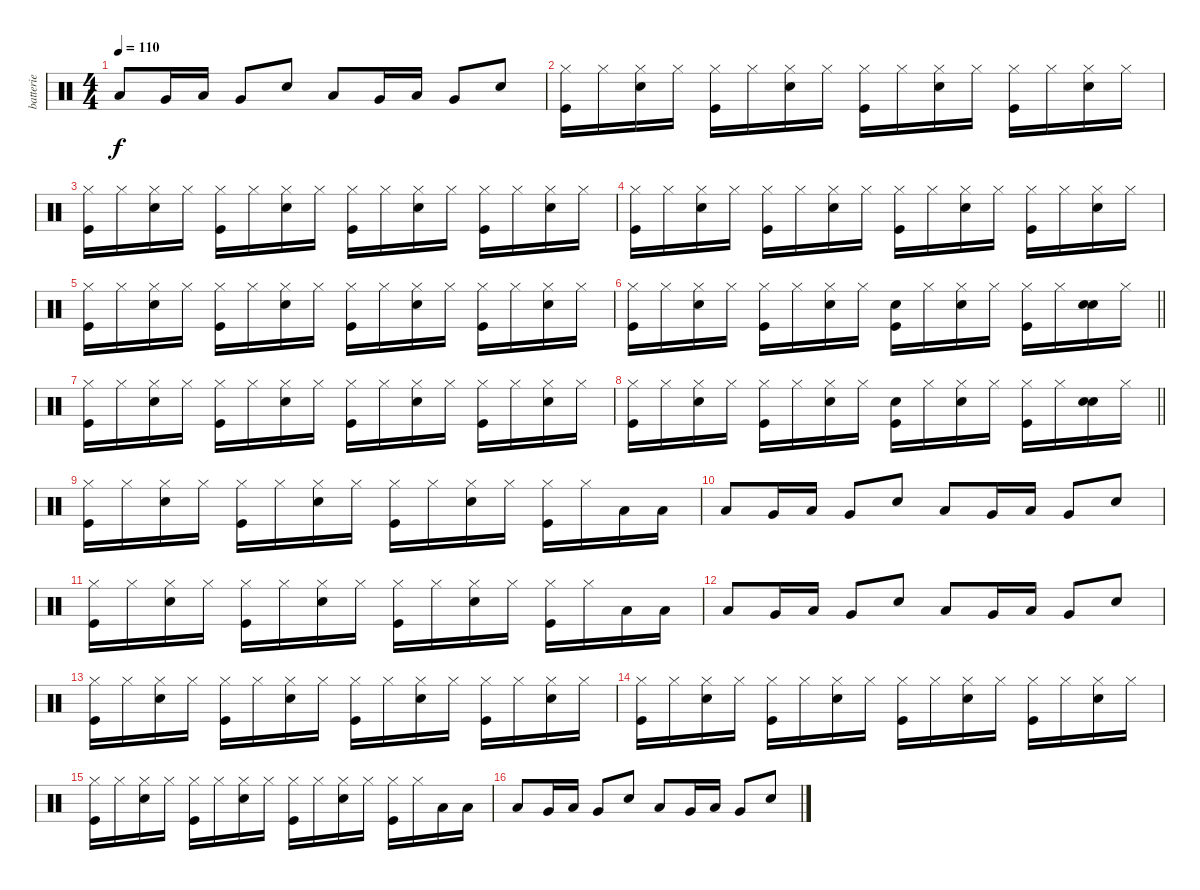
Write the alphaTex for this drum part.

\track ("batterie" "batterie") {instrument percussion}
\staff {score}
\articulation defaults
\ts (4 4)
\tempo 110
\clef neutral
\ks c "Low Tom (hit)".8{dy f} "Very Low Tom (hit)".16 "Low Floor Tom (hit)".16 "Very Low Tom (hit)".8 "Snare (hit) 2".8 "Low Tom (hit)".8 "Very Low Tom (hit)".16 "Low Floor Tom (hit)".16 "Very Low Tom (hit)".8 "Snare (hit) 2".8
|
("Hi-Hat (closed)" "Kick (hit)").16 "Hi-Hat (closed)".16 ("Hi-Hat (closed)" "Snare (hit) 2").16 "Hi-Hat (closed)".16 ("Hi-Hat (closed)" "Kick (hit)").16 "Hi-Hat (closed)".16 ("Hi-Hat (closed)" "Snare (hit) 2").16 "Hi-Hat (closed)".16 ("Hi-Hat (closed)" "Kick (hit)").16 "Hi-Hat (closed)".16 ("Hi-Hat (closed)" "Snare (hit) 2").16 "Hi-Hat (closed)".16 ("Hi-Hat (closed)" "Kick (hit)").16 "Hi-Hat (closed)".16 ("Hi-Hat (closed)" "Snare (hit) 2").16 "Hi-Hat (closed)".16 |
("Hi-Hat (closed)" "Kick (hit)").16 "Hi-Hat (closed)".16 ("Hi-Hat (closed)" "Snare (hit) 2").16 "Hi-Hat (closed)".16 ("Hi-Hat (closed)" "Kick (hit)").16 "Hi-Hat (closed)".16 ("Hi-Hat (closed)" "Snare (hit) 2").16 "Hi-Hat (closed)".16 ("Hi-Hat (closed)" "Kick (hit)").16 "Hi-Hat (closed)".16 ("Hi-Hat (closed)" "Snare (hit) 2").16 "Hi-Hat (closed)".16 ("Hi-Hat (closed)" "Kick (hit)").16 "Hi-Hat (closed)".16 ("Hi-Hat (closed)" "Snare (hit) 2").16 "Hi-Hat (closed)".16 |
("Hi-Hat (closed)" "Kick (hit)").16 "Hi-Hat (closed)".16 ("Hi-Hat (closed)" "Snare (hit) 2").16 "Hi-Hat (closed)".16 ("Hi-Hat (closed)" "Kick (hit)").16 "Hi-Hat (closed)".16 ("Hi-Hat (closed)" "Snare (hit) 2").16 "Hi-Hat (closed)".16 ("Hi-Hat (closed)" "Kick (hit)").16 "Hi-Hat (closed)".16 ("Hi-Hat (closed)" "Snare (hit) 2").16 "Hi-Hat (closed)".16 ("Hi-Hat (closed)" "Kick (hit)").16 "Hi-Hat (closed)".16 ("Hi-Hat (closed)" "Snare (hit) 2").16 "Hi-Hat (closed)".16 |
("Hi-Hat (closed)" "Kick (hit)").16 "Hi-Hat (closed)".16 ("Hi-Hat (closed)" "Snare (hit) 2").16 "Hi-Hat (closed)".16 ("Hi-Hat (closed)" "Kick (hit)").16 "Hi-Hat (closed)".16 ("Hi-Hat (closed)" "Snare (hit) 2").16 "Hi-Hat (closed)".16 ("Hi-Hat (closed)" "Kick (hit)").16 "Hi-Hat (closed)".16 ("Hi-Hat (closed)" "Snare (hit) 2").16 "Hi-Hat (closed)".16 ("Hi-Hat (closed)" "Kick (hit)").16 "Hi-Hat (closed)".16 ("Hi-Hat (closed)" "Snare (hit) 2").16 "Hi-Hat (closed)".16 |
\barLineRight lightlight
("Hi-Hat (closed)" "Kick (hit)").16 "Hi-Hat (closed)".16 ("Hi-Hat (closed)" "Snare (hit) 2").16 "Hi-Hat (closed)".16 ("Hi-Hat (closed)" "Kick (hit)").16 "Hi-Hat (closed)".16 ("Hi-Hat (closed)" "Snare (hit) 2").16 "Hi-Hat (closed)".16 ("Snare (hit)" "Kick (hit)").16 "Hi-Hat (closed)".16 ("Hi-Hat (closed)" "Snare (hit) 2").16 "Hi-Hat (closed)".16 ("Hi-Hat (closed)" "Kick (hit)").16 "Hi-Hat (closed)".16 ("Snare (hit)" "Snare (hit) 2").16 "Hi-Hat (closed)".16 |
("Hi-Hat (closed)" "Kick (hit)").16 "Hi-Hat (closed)".16 ("Hi-Hat (closed)" "Snare (hit) 2").16 "Hi-Hat (closed)".16 ("Hi-Hat (closed)" "Kick (hit)").16 "Hi-Hat (closed)".16 ("Hi-Hat (closed)" "Snare (hit) 2").16 "Hi-Hat (closed)".16 ("Hi-Hat (closed)" "Kick (hit)").16 "Hi-Hat (closed)".16 ("Hi-Hat (closed)" "Snare (hit) 2").16 "Hi-Hat (closed)".16 ("Hi-Hat (closed)" "Kick (hit)").16 "Hi-Hat (closed)".16 ("Hi-Hat (closed)" "Snare (hit) 2").16 "Hi-Hat (closed)".16 |
\barLineRight lightlight
("Hi-Hat (closed)" "Kick (hit)").16 "Hi-Hat (closed)".16 ("Hi-Hat (closed)" "Snare (hit) 2").16 "Hi-Hat (closed)".16 ("Hi-Hat (closed)" "Kick (hit)").16 "Hi-Hat (closed)".16 ("Hi-Hat (closed)" "Snare (hit) 2").16 "Hi-Hat (closed)".16 ("Snare (hit)" "Kick (hit)").16 "Hi-Hat (closed)".16 ("Hi-Hat (closed)" "Snare (hit) 2").16 "Hi-Hat (closed)".16 ("Hi-Hat (closed)" "Kick (hit)").16 "Hi-Hat (closed)".16 ("Snare (hit)" "Snare (hit) 2").16 "Hi-Hat (closed)".16 |
("Hi-Hat (closed)" "Kick (hit)").16 "Hi-Hat (closed)".16 ("Hi-Hat (closed)" "Snare (hit) 2").16 "Hi-Hat (closed)".16 ("Hi-Hat (closed)" "Kick (hit)").16 "Hi-Hat (closed)".16 ("Hi-Hat (closed)" "Snare (hit) 2").16 "Hi-Hat (closed)".16 ("Hi-Hat (closed)" "Kick (hit)").16 "Hi-Hat (closed)".16 ("Hi-Hat (closed)" "Snare (hit) 2").16 "Hi-Hat (closed)".16 ("Hi-Hat (closed)" "Kick (hit)").16 "Hi-Hat (closed)".16 "Low Floor Tom (hit)".16 "Low Floor Tom (hit)".16 |
"Low Tom (hit)".8 "Very Low Tom (hit)".16 "Low Floor Tom (hit)".16 "Very Low Tom (hit)".8 "Snare (hit) 2".8 "Low Tom (hit)".8 "Very Low Tom (hit)".16 "Low Floor Tom (hit)".16 "Very Low Tom (hit)".8 "Snare (hit) 2".8 |
("Hi-Hat (closed)" "Kick (hit)").16 "Hi-Hat (closed)".16 ("Hi-Hat (closed)" "Snare (hit) 2").16 "Hi-Hat (closed)".16 ("Hi-Hat (closed)" "Kick (hit)").16 "Hi-Hat (closed)".16 ("Hi-Hat (closed)" "Snare (hit) 2").16 "Hi-Hat (closed)".16 ("Hi-Hat (closed)" "Kick (hit)").16 "Hi-Hat (closed)".16 ("Hi-Hat (closed)" "Snare (hit) 2").16 "Hi-Hat (closed)".16 ("Hi-Hat (closed)" "Kick (hit)").16 "Hi-Hat (closed)".16 "Low Floor Tom (hit)".16 "Low Floor Tom (hit)".16 |
"Low Tom (hit)".8 "Very Low Tom (hit)".16 "Low Floor Tom (hit)".16 "Very Low Tom (hit)".8 "Snare (hit) 2".8 "Low Tom (hit)".8 "Very Low Tom (hit)".16 "Low Floor Tom (hit)".16 "Very Low Tom (hit)".8 "Snare (hit) 2".8 |
("Hi-Hat (closed)" "Kick (hit)").16 "Hi-Hat (closed)".16 ("Hi-Hat (closed)" "Snare (hit) 2").16 "Hi-Hat (closed)".16 ("Hi-Hat (closed)" "Kick (hit)").16 "Hi-Hat (closed)".16 ("Hi-Hat (closed)" "Snare (hit) 2").16 "Hi-Hat (closed)".16 ("Hi-Hat (closed)" "Kick (hit)").16 "Hi-Hat (closed)".16 ("Hi-Hat (closed)" "Snare (hit) 2").16 "Hi-Hat (closed)".16 ("Hi-Hat (closed)" "Kick (hit)").16 "Hi-Hat (closed)".16 ("Hi-Hat (closed)" "Snare (hit) 2").16 "Hi-Hat (closed)".16 |
("Hi-Hat (closed)" "Kick (hit)").16 "Hi-Hat (closed)".16 ("Hi-Hat (closed)" "Snare (hit) 2").16 "Hi-Hat (closed)".16 ("Hi-Hat (closed)" "Kick (hit)").16 "Hi-Hat (closed)".16 ("Hi-Hat (closed)" "Snare (hit) 2").16 "Hi-Hat (closed)".16 ("Hi-Hat (closed)" "Kick (hit)").16 "Hi-Hat (closed)".16 ("Hi-Hat (closed)" "Snare (hit) 2").16 "Hi-Hat (closed)".16 ("Hi-Hat (closed)" "Kick (hit)").16 "Hi-Hat (closed)".16 ("Hi-Hat (closed)" "Snare (hit) 2").16 "Hi-Hat (closed)".16 |
("Hi-Hat (closed)" "Kick (hit)").16 "Hi-Hat (closed)".16 ("Hi-Hat (closed)" "Snare (hit) 2").16 "Hi-Hat (closed)".16 ("Hi-Hat (closed)" "Kick (hit)").16 "Hi-Hat (closed)".16 ("Hi-Hat (closed)" "Snare (hit) 2").16 "Hi-Hat (closed)".16 ("Hi-Hat (closed)" "Kick (hit)").16 "Hi-Hat (closed)".16 ("Hi-Hat (closed)" "Snare (hit) 2").16 "Hi-Hat (closed)".16 ("Hi-Hat (closed)" "Kick (hit)").16 "Hi-Hat (closed)".16 "Low Floor Tom (hit)".16 "Low Floor Tom (hit)".16 |
"Low Tom (hit)".8 "Very Low Tom (hit)".16 "Low Floor Tom (hit)".16 "Very Low Tom (hit)".8 "Snare (hit) 2".8 "Low Tom (hit)".8 "Very Low Tom (hit)".16 "Low Floor Tom (hit)".16 "Very Low Tom (hit)".8 "Snare (hit) 2".8
